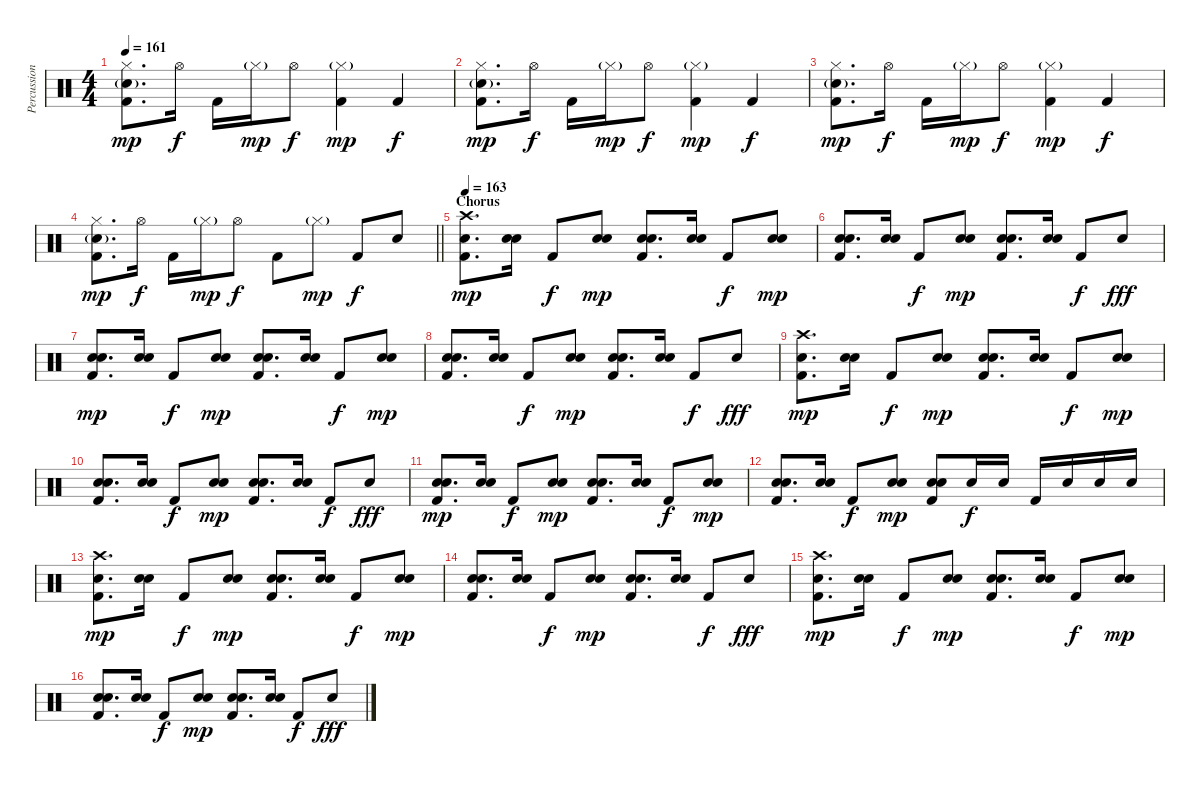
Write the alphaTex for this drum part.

\track ("Percussion" "Percussion") {instrument percussion}
\staff {score}
\articulation defaults
\ts (4 4)
\tempo 161
\clef neutral
\ks c
("Hi-Hat (closed)" "Snare (hit) 2"{g} "Kick (hit) 2").8{d dy mp} "Hi-Hat (open)".16{dy f} "Kick (hit) 2".16 "Hi-Hat (closed)"{g}.16{dy mp} "Hi-Hat (open)".8{dy f} ("Hi-Hat (closed)"{g} "Kick (hit) 2").4{dy mp} "Kick (hit) 2".4{dy f} |
("Hi-Hat (closed)" "Snare (hit) 2"{g} "Kick (hit) 2").8{d dy mp} "Hi-Hat (open)".16{dy f} "Kick (hit) 2".16 "Hi-Hat (closed)"{g}.16{dy mp} "Hi-Hat (open)".8{dy f} ("Hi-Hat (closed)"{g} "Kick (hit) 2").4{dy mp} "Kick (hit) 2".4{dy f} |
("Hi-Hat (closed)" "Snare (hit) 2"{g} "Kick (hit) 2").8{d dy mp} "Hi-Hat (open)".16{dy f} "Kick (hit) 2".16 "Hi-Hat (closed)"{g}.16{dy mp} "Hi-Hat (open)".8{dy f} ("Hi-Hat (closed)"{g} "Kick (hit) 2").4{dy mp} "Kick (hit) 2".4{dy f} |
\barLineRight lightlight
("Hi-Hat (closed)" "Snare (hit) 2"{g} "Kick (hit) 2").8{d dy mp} "Hi-Hat (open)".16{dy f} "Kick (hit) 2".16 "Hi-Hat (closed)"{g}.16{dy mp} "Hi-Hat (open)".8{dy f} "Kick (hit) 2".8 "Hi-Hat (closed)"{g}.8{dy mp} "Kick (hit) 2".8{dy f} "Snare (hit) 2".8 |
\section ("" "Chorus")
\tempo 163
("Crash high (hit)" "Snare (hit) 2" "Kick (hit) 2").8{d bd 120 dy mp} ("Snare (hit) 2" "Snare (hit) 2").16{bd 120} "Kick (hit) 2".8{dy f} ("Snare (hit) 2" "Snare (hit) 2").8{bd 120 dy mp} ("Snare (hit) 2" "Snare (hit) 2" "Kick (hit) 2").8{d bd 120} ("Snare (hit) 2" "Snare (hit) 2").16{bd 120} "Kick (hit) 2".8{dy f} ("Snare (hit) 2" "Snare (hit) 2").8{bd 120 dy mp} |
("Snare (hit) 2" "Snare (hit) 2" "Kick (hit) 2").8{d bd 120} ("Snare (hit) 2" "Snare (hit) 2").16{bd 120} "Kick (hit) 2".8{dy f} ("Snare (hit) 2" "Snare (hit) 2").8{bd 120 dy mp} ("Snare (hit) 2" "Snare (hit) 2" "Kick (hit) 2").8{d bd 120} ("Snare (hit) 2" "Snare (hit) 2").16{bd 120} "Kick (hit) 2".8{dy f} "Snare (hit) 2".8{dy fff} |
("Snare (hit) 2" "Snare (hit) 2" "Kick (hit) 2").8{d bd 120 dy mp} ("Snare (hit) 2" "Snare (hit) 2").16{bd 120} "Kick (hit) 2".8{dy f} ("Snare (hit) 2" "Snare (hit) 2").8{bd 120 dy mp} ("Snare (hit) 2" "Snare (hit) 2" "Kick (hit) 2").8{d bd 120} ("Snare (hit) 2" "Snare (hit) 2").16{bd 120} "Kick (hit) 2".8{dy f} ("Snare (hit) 2" "Snare (hit) 2").8{bd 120 dy mp} |
("Snare (hit) 2" "Snare (hit) 2" "Kick (hit) 2").8{d bd 120} ("Snare (hit) 2" "Snare (hit) 2").16{bd 120} "Kick (hit) 2".8{dy f} ("Snare (hit) 2" "Snare (hit) 2").8{bd 120 dy mp} ("Snare (hit) 2" "Snare (hit) 2" "Kick (hit) 2").8{d bd 120} ("Snare (hit) 2" "Snare (hit) 2").16{bd 120} "Kick (hit) 2".8{dy f} "Snare (hit) 2".8{dy fff} |
("Crash high (hit)" "Snare (hit) 2" "Kick (hit) 2").8{d bd 120 dy mp} ("Snare (hit) 2" "Snare (hit) 2").16{bd 120} "Kick (hit) 2".8{dy f} ("Snare (hit) 2" "Snare (hit) 2").8{bd 120 dy mp} ("Snare (hit) 2" "Snare (hit) 2" "Kick (hit) 2").8{d bd 120} ("Snare (hit) 2" "Snare (hit) 2").16{bd 120} "Kick (hit) 2".8{dy f} ("Snare (hit) 2" "Snare (hit) 2").8{bd 120 dy mp} |
("Snare (hit) 2" "Snare (hit) 2" "Kick (hit) 2").8{d bd 120} ("Snare (hit) 2" "Snare (hit) 2").16{bd 120} "Kick (hit) 2".8{dy f} ("Snare (hit) 2" "Snare (hit) 2").8{bd 120 dy mp} ("Snare (hit) 2" "Snare (hit) 2" "Kick (hit) 2").8{d bd 120} ("Snare (hit) 2" "Snare (hit) 2").16{bd 120} "Kick (hit) 2".8{dy f} "Snare (hit) 2".8{dy fff} |
("Snare (hit) 2" "Snare (hit) 2" "Kick (hit) 2").8{d bd 120 dy mp} ("Snare (hit) 2" "Snare (hit) 2").16{bd 120} "Kick (hit) 2".8{dy f} ("Snare (hit) 2" "Snare (hit) 2").8{bd 120 dy mp} ("Snare (hit) 2" "Snare (hit) 2" "Kick (hit) 2").8{d bd 120} ("Snare (hit) 2" "Snare (hit) 2").16{bd 120} "Kick (hit) 2".8{dy f} ("Snare (hit) 2" "Snare (hit) 2").8{bd 120 dy mp} |
("Snare (hit) 2" "Snare (hit) 2" "Kick (hit) 2").8{d bd 120} ("Snare (hit) 2" "Snare (hit) 2").16{bd 120} "Kick (hit) 2".8{dy f} ("Snare (hit) 2" "Snare (hit) 2").8{bd 120 dy mp} ("Snare (hit) 2" "Snare (hit) 2" "Kick (hit) 2").8{bd 120} "Snare (hit) 2".16{dy f} "Snare (hit) 2".16 "Kick (hit) 2".16 "Snare (hit) 2".16 "Snare (hit) 2".16 "Snare (hit) 2".16 |
("Crash high (hit)" "Snare (hit) 2" "Kick (hit) 2").8{d bd 120 dy mp} ("Snare (hit) 2" "Snare (hit) 2").16{bd 120} "Kick (hit) 2".8{dy f} ("Snare (hit) 2" "Snare (hit) 2").8{bd 120 dy mp} ("Snare (hit) 2" "Snare (hit) 2" "Kick (hit) 2").8{d bd 120} ("Snare (hit) 2" "Snare (hit) 2").16{bd 120} "Kick (hit) 2".8{dy f} ("Snare (hit) 2" "Snare (hit) 2").8{bd 120 dy mp} |
("Snare (hit) 2" "Snare (hit) 2" "Kick (hit) 2").8{d bd 120} ("Snare (hit) 2" "Snare (hit) 2").16{bd 120} "Kick (hit) 2".8{dy f} ("Snare (hit) 2" "Snare (hit) 2").8{bd 120 dy mp} ("Snare (hit) 2" "Snare (hit) 2" "Kick (hit) 2").8{d bd 120} ("Snare (hit) 2" "Snare (hit) 2").16{bd 120} "Kick (hit) 2".8{dy f} "Snare (hit) 2".8{dy fff} |
("Crash high (hit)" "Snare (hit) 2" "Kick (hit) 2").8{d bd 120 dy mp} ("Snare (hit) 2" "Snare (hit) 2").16{bd 120} "Kick (hit) 2".8{dy f} ("Snare (hit) 2" "Snare (hit) 2").8{bd 120 dy mp} ("Snare (hit) 2" "Snare (hit) 2" "Kick (hit) 2").8{d bd 120} ("Snare (hit) 2" "Snare (hit) 2").16{bd 120} "Kick (hit) 2".8{dy f} ("Snare (hit) 2" "Snare (hit) 2").8{bd 120 dy mp} |
("Snare (hit) 2" "Snare (hit) 2" "Kick (hit) 2").8{d bd 120} ("Snare (hit) 2" "Snare (hit) 2").16{bd 120} "Kick (hit) 2".8{dy f} ("Snare (hit) 2" "Snare (hit) 2").8{bd 120 dy mp} ("Snare (hit) 2" "Snare (hit) 2" "Kick (hit) 2").8{d bd 120} ("Snare (hit) 2" "Snare (hit) 2").16{bd 120} "Kick (hit) 2".8{dy f} "Snare (hit) 2".8{dy fff}
